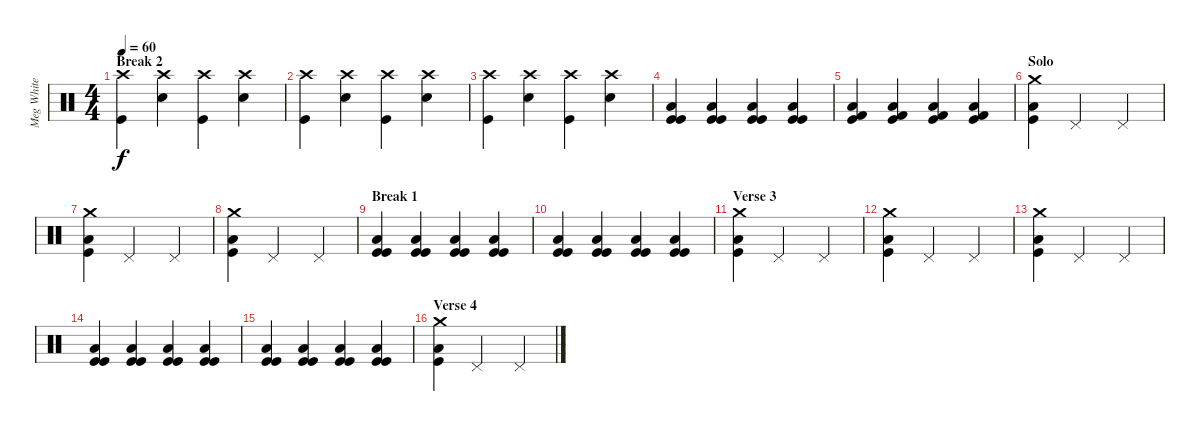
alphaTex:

\track ("Meg White (drums)" "Meg White ") {instrument percussion}
\staff {score}
\articulation defaults
\ts (4 4)
\section ("" "Break 2")
\tempo 60
\clef neutral
\ks c
("Kick (hit)" "Crash high (hit)").4{dy f} ("Electric Snare (hit)" "Crash high (hit)").4 ("Kick (hit)" "Crash high (hit)").4 ("Electric Snare (hit)" "Crash high (hit)").4 |
("Kick (hit)" "Crash high (hit)").4 ("Electric Snare (hit)" "Crash high (hit)").4 ("Kick (hit)" "Crash high (hit)").4 ("Electric Snare (hit)" "Crash high (hit)").4 |
("Kick (hit)" "Crash high (hit)").4 ("Electric Snare (hit)" "Crash high (hit)").4 ("Kick (hit)" "Crash high (hit)").4 ("Electric Snare (hit)" "Crash high (hit)").4 |
("Low Floor Tom (hit)" "Kick (hit)" "Kick (hit)").4 ("Low Floor Tom (hit)" "Kick (hit)" "Kick (hit)").4 ("Low Floor Tom (hit)" "Kick (hit)" "Kick (hit)").4 ("Low Floor Tom (hit)" "Kick (hit)" "Kick (hit)").4 |
("Low Floor Tom (hit)" "Kick (hit)" "Kick (hit) 2").4 ("Low Floor Tom (hit)" "Kick (hit)" "Kick (hit) 2").4 ("Low Floor Tom (hit)" "Kick (hit)" "Kick (hit) 2").4 ("Low Floor Tom (hit)" "Kick (hit)" "Kick (hit) 2").4 |
\section ("" "Solo")
("Low Floor Tom (hit)" "Kick (hit)" "Crash medium (hit)").4 "Pedal Hi-Hat (hit)".2 "Pedal Hi-Hat (hit)".4 |
("Low Floor Tom (hit)" "Kick (hit)" "Crash medium (hit)").4 "Pedal Hi-Hat (hit)".2 "Pedal Hi-Hat (hit)".4 |
("Low Floor Tom (hit)" "Kick (hit)" "Crash medium (hit)").4 "Pedal Hi-Hat (hit)".2 "Pedal Hi-Hat (hit)".4 |
\section ("" "Break 1")
("Low Floor Tom (hit)" "Kick (hit)" "Kick (hit)").4 ("Low Floor Tom (hit)" "Kick (hit)" "Kick (hit)").4 ("Low Floor Tom (hit)" "Kick (hit)" "Kick (hit)").4 ("Low Floor Tom (hit)" "Kick (hit)" "Kick (hit)").4 |
("Low Floor Tom (hit)" "Kick (hit)" "Kick (hit)").4 ("Low Floor Tom (hit)" "Kick (hit)" "Kick (hit)").4 ("Low Floor Tom (hit)" "Kick (hit)" "Kick (hit)").4 ("Low Floor Tom (hit)" "Kick (hit)" "Kick (hit)").4 |
\section ("" "Verse 3")
("Low Floor Tom (hit)" "Kick (hit)" "Crash medium (hit)").4 "Pedal Hi-Hat (hit)".2 "Pedal Hi-Hat (hit)".4 |
("Low Floor Tom (hit)" "Kick (hit)" "Crash medium (hit)").4 "Pedal Hi-Hat (hit)".2 "Pedal Hi-Hat (hit)".4 |
("Low Floor Tom (hit)" "Kick (hit)" "Crash medium (hit)").4 "Pedal Hi-Hat (hit)".2 "Pedal Hi-Hat (hit)".4 |
("Low Floor Tom (hit)" "Kick (hit)" "Kick (hit)").4 ("Low Floor Tom (hit)" "Kick (hit)" "Kick (hit)").4 ("Low Floor Tom (hit)" "Kick (hit)" "Kick (hit)").4 ("Low Floor Tom (hit)" "Kick (hit)" "Kick (hit)").4 |
("Low Floor Tom (hit)" "Kick (hit)" "Kick (hit)").4 ("Low Floor Tom (hit)" "Kick (hit)" "Kick (hit)").4 ("Low Floor Tom (hit)" "Kick (hit)" "Kick (hit)").4 ("Low Floor Tom (hit)" "Kick (hit)" "Kick (hit)").4 |
\section ("" "Verse 4")
("Low Floor Tom (hit)" "Kick (hit)" "Crash medium (hit)").4 "Pedal Hi-Hat (hit)".2 "Pedal Hi-Hat (hit)".4
